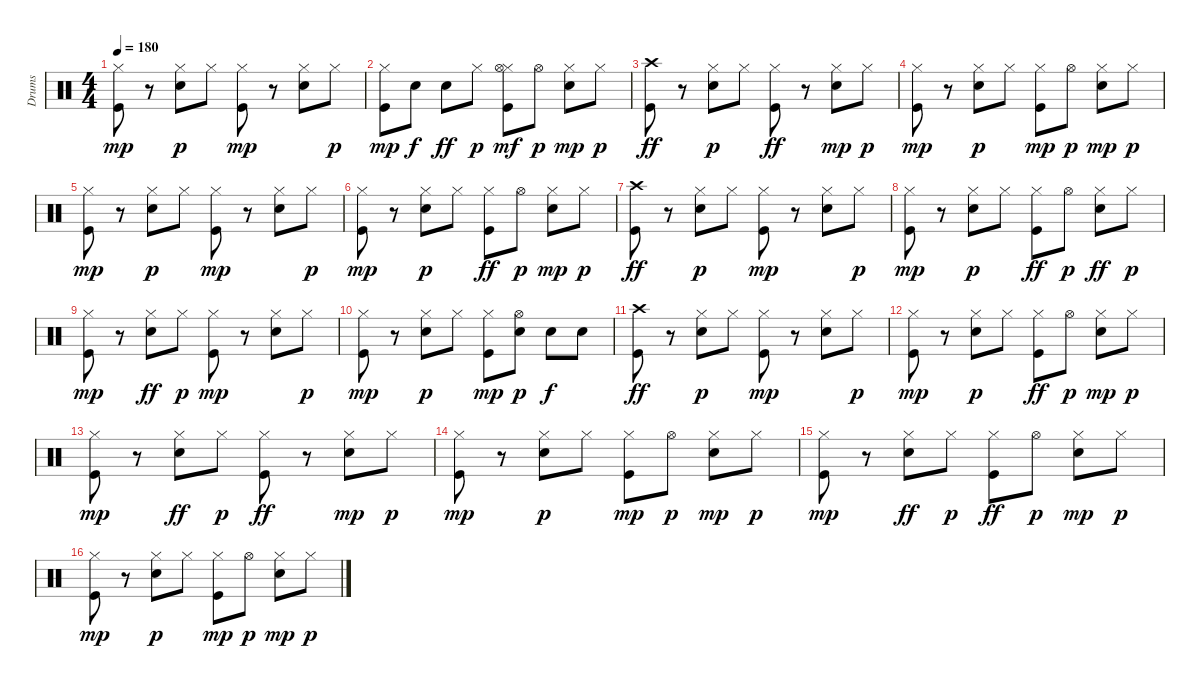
\track ("Drums" "Drums") {instrument percussion}
\staff {score}
\articulation defaults
\ts (4 4)
\tempo 180
\clef neutral
\ks c
("Kick (hit)" "Hi-Hat (closed)").8{dy mp} r.8 ("Snare (hit) 2" "Hi-Hat (closed)").8{dy p} "Hi-Hat (closed)".8 ("Kick (hit)" "Hi-Hat (closed)").8{dy mp} r.8 ("Snare (hit) 2" "Hi-Hat (closed)").8 "Hi-Hat (closed)".8{dy p} |
("Kick (hit)" "Hi-Hat (closed)").8{dy mp} "Snare (hit) 2".8{dy f} "Snare (hit) 2".8{dy ff} "Hi-Hat (closed)".8{dy p} ("Kick (hit)" "Hi-Hat (closed)" "Hi-Hat (open)").8{dy mf} "Hi-Hat (open)".8{dy p} ("Snare (hit) 2" "Hi-Hat (closed)").8{dy mp} "Hi-Hat (closed)".8{dy p} |
("Crash high (hit)" "Kick (hit)").8{dy ff} r.8 ("Snare (hit) 2" "Hi-Hat (closed)").8{dy p} "Hi-Hat (closed)".8 ("Hi-Hat (closed)" "Kick (hit)").8{dy ff} r.8 ("Snare (hit) 2" "Hi-Hat (closed)").8{dy mp} "Hi-Hat (closed)".8{dy p} |
("Kick (hit)" "Hi-Hat (closed)").8{dy mp} r.8 ("Snare (hit) 2" "Hi-Hat (closed)").8{dy p} "Hi-Hat (closed)".8 ("Kick (hit)" "Hi-Hat (closed)").8{dy mp} "Hi-Hat (open)".8{dy p} ("Snare (hit) 2" "Hi-Hat (closed)").8{dy mp} "Hi-Hat (closed)".8{dy p} |
("Kick (hit)" "Hi-Hat (closed)").8{dy mp} r.8 ("Snare (hit) 2" "Hi-Hat (closed)").8{dy p} "Hi-Hat (closed)".8 ("Kick (hit)" "Hi-Hat (closed)").8{dy mp} r.8 ("Snare (hit) 2" "Hi-Hat (closed)").8 "Hi-Hat (closed)".8{dy p} |
("Kick (hit)" "Hi-Hat (closed)").8{dy mp} r.8 ("Snare (hit) 2" "Hi-Hat (closed)").8{dy p} "Hi-Hat (closed)".8 ("Hi-Hat (closed)" "Kick (hit)").8{dy ff} "Hi-Hat (open)".8{dy p} ("Snare (hit) 2" "Hi-Hat (closed)").8{dy mp} "Hi-Hat (closed)".8{dy p} |
("Crash high (hit)" "Kick (hit)").8{dy ff} r.8 ("Snare (hit) 2" "Hi-Hat (closed)").8{dy p} "Hi-Hat (closed)".8 ("Kick (hit)" "Hi-Hat (closed)").8{dy mp} r.8 ("Snare (hit) 2" "Hi-Hat (closed)").8 "Hi-Hat (closed)".8{dy p} |
("Kick (hit)" "Hi-Hat (closed)").8{dy mp} r.8 ("Snare (hit) 2" "Hi-Hat (closed)").8{dy p} "Hi-Hat (closed)".8 ("Hi-Hat (closed)" "Kick (hit)").8{dy ff} "Hi-Hat (open)".8{dy p} ("Hi-Hat (closed)" "Snare (hit) 2").8{dy ff} "Hi-Hat (closed)".8{dy p} |
("Kick (hit)" "Hi-Hat (closed)").8{dy mp} r.8 ("Hi-Hat (closed)" "Snare (hit) 2").8{dy ff} "Hi-Hat (closed)".8{dy p} ("Kick (hit)" "Hi-Hat (closed)").8{dy mp} r.8 ("Snare (hit) 2" "Hi-Hat (closed)").8 "Hi-Hat (closed)".8{dy p} |
("Kick (hit)" "Hi-Hat (closed)").8{dy mp} r.8 ("Snare (hit) 2" "Hi-Hat (closed)").8{dy p} "Hi-Hat (closed)".8 ("Kick (hit)" "Hi-Hat (closed)").8{dy mp} ("Hi-Hat (open)" "Snare (hit) 2").8{dy p} "Snare (hit) 2".8{dy f} "Snare (hit) 2".8 |
("Crash high (hit)" "Kick (hit)").8{dy ff} r.8 ("Snare (hit) 2" "Hi-Hat (closed)").8{dy p} "Hi-Hat (closed)".8 ("Kick (hit)" "Hi-Hat (closed)").8{dy mp} r.8 ("Snare (hit) 2" "Hi-Hat (closed)").8 "Hi-Hat (closed)".8{dy p} |
("Kick (hit)" "Hi-Hat (closed)").8{dy mp} r.8 ("Snare (hit) 2" "Hi-Hat (closed)").8{dy p} "Hi-Hat (closed)".8 ("Hi-Hat (closed)" "Kick (hit)").8{dy ff} "Hi-Hat (open)".8{dy p} ("Snare (hit) 2" "Hi-Hat (closed)").8{dy mp} "Hi-Hat (closed)".8{dy p} |
("Kick (hit)" "Hi-Hat (closed)").8{dy mp} r.8 ("Hi-Hat (closed)" "Snare (hit) 2").8{dy ff} "Hi-Hat (closed)".8{dy p} ("Hi-Hat (closed)" "Kick (hit)").8{dy ff} r.8 ("Snare (hit) 2" "Hi-Hat (closed)").8{dy mp} "Hi-Hat (closed)".8{dy p} |
("Kick (hit)" "Hi-Hat (closed)").8{dy mp} r.8 ("Snare (hit) 2" "Hi-Hat (closed)").8{dy p} "Hi-Hat (closed)".8 ("Kick (hit)" "Hi-Hat (closed)").8{dy mp} "Hi-Hat (open)".8{dy p} ("Snare (hit) 2" "Hi-Hat (closed)").8{dy mp} "Hi-Hat (closed)".8{dy p} |
("Kick (hit)" "Hi-Hat (closed)").8{dy mp} r.8 ("Hi-Hat (closed)" "Snare (hit) 2").8{dy ff} "Hi-Hat (closed)".8{dy p} ("Hi-Hat (closed)" "Kick (hit)").8{dy ff} "Hi-Hat (open)".8{dy p} ("Snare (hit) 2" "Hi-Hat (closed)").8{dy mp} "Hi-Hat (closed)".8{dy p} |
("Kick (hit)" "Hi-Hat (closed)").8{dy mp} r.8 ("Snare (hit) 2" "Hi-Hat (closed)").8{dy p} "Hi-Hat (closed)".8 ("Kick (hit)" "Hi-Hat (closed)").8{dy mp} "Hi-Hat (open)".8{dy p} ("Snare (hit) 2" "Hi-Hat (closed)").8{dy mp} "Hi-Hat (closed)".8{dy p}
